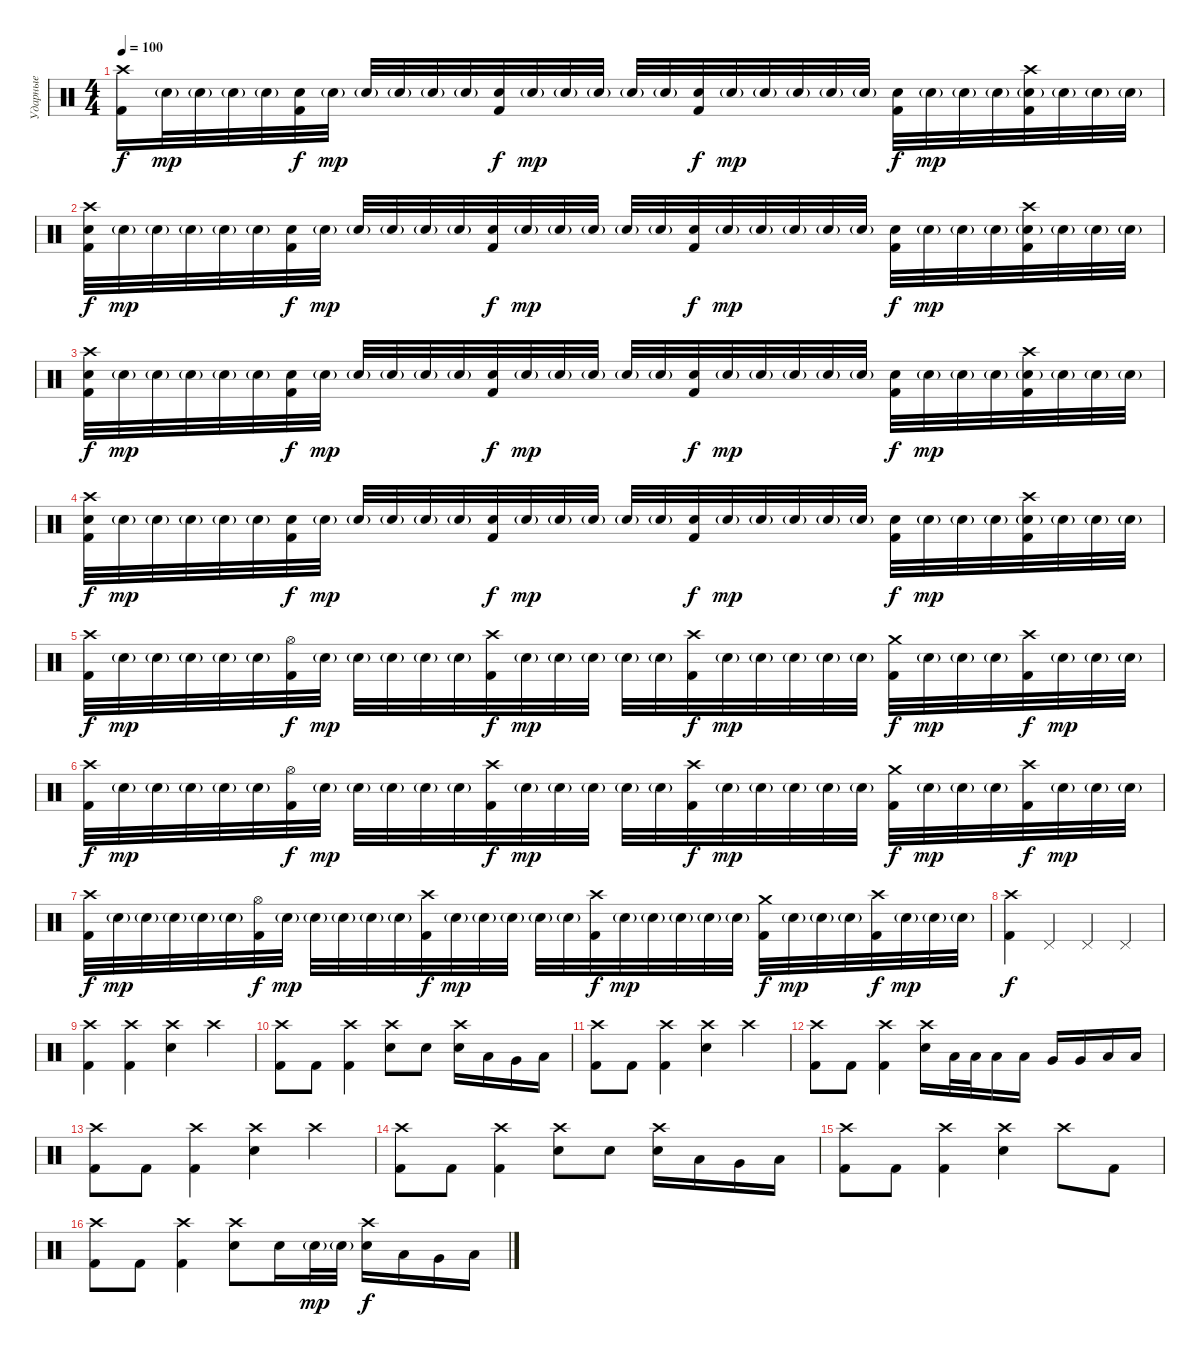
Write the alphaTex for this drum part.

\track ("Ударные" "Ударные") {instrument percussion}
\staff {score}
\articulation defaults
\ts (4 4)
\tempo 100
\clef neutral
\ks c
("Crash high (hit)" "Kick (hit) 2").16{dy f} "Electric Snare (hit)"{g}.32{dy mp} "Electric Snare (hit)"{g}.32 "Electric Snare (hit)"{g}.32 "Electric Snare (hit)"{g}.32 ("Electric Snare (hit)" "Kick (hit) 2").32{dy f} "Electric Snare (hit)"{g}.32{dy mp} "Electric Snare (hit)"{g}.32 "Electric Snare (hit)"{g}.32 "Electric Snare (hit)"{g}.32 "Electric Snare (hit)"{g}.32 ("Electric Snare (hit)" "Kick (hit) 2").32{dy f} "Electric Snare (hit)"{g}.32{dy mp} "Electric Snare (hit)"{g}.32 "Electric Snare (hit)"{g}.32 "Electric Snare (hit)"{g}.32 "Electric Snare (hit)"{g}.32 ("Electric Snare (hit)" "Kick (hit) 2").32{dy f} "Electric Snare (hit)"{g}.32{dy mp} "Electric Snare (hit)"{g}.32 "Electric Snare (hit)"{g}.32 "Electric Snare (hit)"{g}.32 "Electric Snare (hit)"{g}.32 ("Electric Snare (hit)" "Kick (hit) 2").32{dy f} "Electric Snare (hit)"{g}.32{dy mp} "Electric Snare (hit)"{g}.32 "Electric Snare (hit)"{g}.32 ("Crash high (hit)" "Electric Snare (hit)"{g} "Kick (hit) 2").32 "Electric Snare (hit)"{g}.32 "Electric Snare (hit)"{g}.32 "Electric Snare (hit)"{g}.32 |
("Crash high (hit)" "Electric Snare (hit)" "Kick (hit) 2").32{dy f} "Electric Snare (hit)"{g}.32{dy mp} "Electric Snare (hit)"{g}.32 "Electric Snare (hit)"{g}.32 "Electric Snare (hit)"{g}.32 "Electric Snare (hit)"{g}.32 ("Electric Snare (hit)" "Kick (hit) 2").32{dy f} "Electric Snare (hit)"{g}.32{dy mp} "Electric Snare (hit)"{g}.32 "Electric Snare (hit)"{g}.32 "Electric Snare (hit)"{g}.32 "Electric Snare (hit)"{g}.32 ("Electric Snare (hit)" "Kick (hit) 2").32{dy f} "Electric Snare (hit)"{g}.32{dy mp} "Electric Snare (hit)"{g}.32 "Electric Snare (hit)"{g}.32 "Electric Snare (hit)"{g}.32 "Electric Snare (hit)"{g}.32 ("Electric Snare (hit)" "Kick (hit) 2").32{dy f} "Electric Snare (hit)"{g}.32{dy mp} "Electric Snare (hit)"{g}.32 "Electric Snare (hit)"{g}.32 "Electric Snare (hit)"{g}.32 "Electric Snare (hit)"{g}.32 ("Electric Snare (hit)" "Kick (hit) 2").32{dy f} "Electric Snare (hit)"{g}.32{dy mp} "Electric Snare (hit)"{g}.32 "Electric Snare (hit)"{g}.32 ("Crash high (hit)" "Electric Snare (hit)"{g} "Kick (hit) 2").32 "Electric Snare (hit)"{g}.32 "Electric Snare (hit)"{g}.32 "Electric Snare (hit)"{g}.32 |
("Crash high (hit)" "Electric Snare (hit)" "Kick (hit) 2").32{dy f} "Electric Snare (hit)"{g}.32{dy mp} "Electric Snare (hit)"{g}.32 "Electric Snare (hit)"{g}.32 "Electric Snare (hit)"{g}.32 "Electric Snare (hit)"{g}.32 ("Electric Snare (hit)" "Kick (hit) 2").32{dy f} "Electric Snare (hit)"{g}.32{dy mp} "Electric Snare (hit)"{g}.32 "Electric Snare (hit)"{g}.32 "Electric Snare (hit)"{g}.32 "Electric Snare (hit)"{g}.32 ("Electric Snare (hit)" "Kick (hit) 2").32{dy f} "Electric Snare (hit)"{g}.32{dy mp} "Electric Snare (hit)"{g}.32 "Electric Snare (hit)"{g}.32 "Electric Snare (hit)"{g}.32 "Electric Snare (hit)"{g}.32 ("Electric Snare (hit)" "Kick (hit) 2").32{dy f} "Electric Snare (hit)"{g}.32{dy mp} "Electric Snare (hit)"{g}.32 "Electric Snare (hit)"{g}.32 "Electric Snare (hit)"{g}.32 "Electric Snare (hit)"{g}.32 ("Electric Snare (hit)" "Kick (hit) 2").32{dy f} "Electric Snare (hit)"{g}.32{dy mp} "Electric Snare (hit)"{g}.32 "Electric Snare (hit)"{g}.32 ("Crash high (hit)" "Electric Snare (hit)"{g} "Kick (hit) 2").32 "Electric Snare (hit)"{g}.32 "Electric Snare (hit)"{g}.32 "Electric Snare (hit)"{g}.32 |
("Crash high (hit)" "Electric Snare (hit)" "Kick (hit) 2").32{dy f} "Electric Snare (hit)"{g}.32{dy mp} "Electric Snare (hit)"{g}.32 "Electric Snare (hit)"{g}.32 "Electric Snare (hit)"{g}.32 "Electric Snare (hit)"{g}.32 ("Electric Snare (hit)" "Kick (hit) 2").32{dy f} "Electric Snare (hit)"{g}.32{dy mp} "Electric Snare (hit)"{g}.32 "Electric Snare (hit)"{g}.32 "Electric Snare (hit)"{g}.32 "Electric Snare (hit)"{g}.32 ("Electric Snare (hit)" "Kick (hit) 2").32{dy f} "Electric Snare (hit)"{g}.32{dy mp} "Electric Snare (hit)"{g}.32 "Electric Snare (hit)"{g}.32 "Electric Snare (hit)"{g}.32 "Electric Snare (hit)"{g}.32 ("Electric Snare (hit)" "Kick (hit) 2").32{dy f} "Electric Snare (hit)"{g}.32{dy mp} "Electric Snare (hit)"{g}.32 "Electric Snare (hit)"{g}.32 "Electric Snare (hit)"{g}.32 "Electric Snare (hit)"{g}.32 ("Electric Snare (hit)" "Kick (hit) 2").32{dy f} "Electric Snare (hit)"{g}.32{dy mp} "Electric Snare (hit)"{g}.32 "Electric Snare (hit)"{g}.32 ("Crash high (hit)" "Electric Snare (hit)"{g} "Kick (hit) 2").32 "Electric Snare (hit)"{g}.32 "Electric Snare (hit)"{g}.32 "Electric Snare (hit)"{g}.32 |
("Crash high (hit)" "Kick (hit) 2").32{dy f} "Electric Snare (hit)"{g}.32{dy mp} "Electric Snare (hit)"{g}.32 "Electric Snare (hit)"{g}.32 "Electric Snare (hit)"{g}.32 "Electric Snare (hit)"{g}.32 ("Hi-Hat (open)" "Kick (hit) 2").32{dy f} "Electric Snare (hit)"{g}.32{dy mp} "Electric Snare (hit)"{g}.32 "Electric Snare (hit)"{g}.32 "Electric Snare (hit)"{g}.32 "Electric Snare (hit)"{g}.32 ("Crash high (hit)" "Kick (hit) 2").32{dy f} "Electric Snare (hit)"{g}.32{dy mp} "Electric Snare (hit)"{g}.32 "Electric Snare (hit)"{g}.32 "Electric Snare (hit)"{g}.32 "Electric Snare (hit)"{g}.32 ("Crash high (hit)" "Kick (hit) 2").32{dy f} "Electric Snare (hit)"{g}.32{dy mp} "Electric Snare (hit)"{g}.32 "Electric Snare (hit)"{g}.32 "Electric Snare (hit)"{g}.32 "Electric Snare (hit)"{g}.32 ("Crash medium (hit)" "Kick (hit) 2").32{dy f} "Electric Snare (hit)"{g}.32{dy mp} "Electric Snare (hit)"{g}.32 "Electric Snare (hit)"{g}.32 ("Crash high (hit)" "Kick (hit) 2").32{dy f} "Electric Snare (hit)"{g}.32{dy mp} "Electric Snare (hit)"{g}.32 "Electric Snare (hit)"{g}.32 |
("Crash high (hit)" "Kick (hit) 2").32{dy f} "Electric Snare (hit)"{g}.32{dy mp} "Electric Snare (hit)"{g}.32 "Electric Snare (hit)"{g}.32 "Electric Snare (hit)"{g}.32 "Electric Snare (hit)"{g}.32 ("Hi-Hat (open)" "Kick (hit) 2").32{dy f} "Electric Snare (hit)"{g}.32{dy mp} "Electric Snare (hit)"{g}.32 "Electric Snare (hit)"{g}.32 "Electric Snare (hit)"{g}.32 "Electric Snare (hit)"{g}.32 ("Crash high (hit)" "Kick (hit) 2").32{dy f} "Electric Snare (hit)"{g}.32{dy mp} "Electric Snare (hit)"{g}.32 "Electric Snare (hit)"{g}.32 "Electric Snare (hit)"{g}.32 "Electric Snare (hit)"{g}.32 ("Crash high (hit)" "Kick (hit) 2").32{dy f} "Electric Snare (hit)"{g}.32{dy mp} "Electric Snare (hit)"{g}.32 "Electric Snare (hit)"{g}.32 "Electric Snare (hit)"{g}.32 "Electric Snare (hit)"{g}.32 ("Crash medium (hit)" "Kick (hit) 2").32{dy f} "Electric Snare (hit)"{g}.32{dy mp} "Electric Snare (hit)"{g}.32 "Electric Snare (hit)"{g}.32 ("Crash high (hit)" "Kick (hit) 2").32{dy f} "Electric Snare (hit)"{g}.32{dy mp} "Electric Snare (hit)"{g}.32 "Electric Snare (hit)"{g}.32 |
("Crash high (hit)" "Kick (hit) 2").32{dy f} "Electric Snare (hit)"{g}.32{dy mp} "Electric Snare (hit)"{g}.32 "Electric Snare (hit)"{g}.32 "Electric Snare (hit)"{g}.32 "Electric Snare (hit)"{g}.32 ("Hi-Hat (open)" "Kick (hit) 2").32{dy f} "Electric Snare (hit)"{g}.32{dy mp} "Electric Snare (hit)"{g}.32 "Electric Snare (hit)"{g}.32 "Electric Snare (hit)"{g}.32 "Electric Snare (hit)"{g}.32 ("Crash high (hit)" "Kick (hit) 2").32{dy f} "Electric Snare (hit)"{g}.32{dy mp} "Electric Snare (hit)"{g}.32 "Electric Snare (hit)"{g}.32 "Electric Snare (hit)"{g}.32 "Electric Snare (hit)"{g}.32 ("Crash high (hit)" "Kick (hit) 2").32{dy f} "Electric Snare (hit)"{g}.32{dy mp} "Electric Snare (hit)"{g}.32 "Electric Snare (hit)"{g}.32 "Electric Snare (hit)"{g}.32 "Electric Snare (hit)"{g}.32 ("Crash medium (hit)" "Kick (hit) 2").32{dy f} "Electric Snare (hit)"{g}.32{dy mp} "Electric Snare (hit)"{g}.32 "Electric Snare (hit)"{g}.32 ("Crash high (hit)" "Kick (hit) 2").32{dy f} "Electric Snare (hit)"{g}.32{dy mp} "Electric Snare (hit)"{g}.32 "Electric Snare (hit)"{g}.32 |
("Crash high (hit)" "Kick (hit) 2").4{dy f} "Pedal Hi-Hat (hit)".4 "Pedal Hi-Hat (hit)".4 "Pedal Hi-Hat (hit)".4 |
("Crash high (hit)" "Kick (hit) 2").4 ("Crash high (hit)" "Kick (hit) 2").4 ("Crash high (hit)" "Electric Snare (hit)").4 "Crash high (hit)".4 |
("Crash high (hit)" "Kick (hit) 2").8 "Kick (hit) 2".8 ("Crash high (hit)" "Kick (hit) 2").4 ("Crash high (hit)" "Electric Snare (hit)").8 "Electric Snare (hit)".8 ("Crash high (hit)" "Electric Snare (hit)").16 "Low Tom (hit)".16 "Very Low Tom (hit)".16 "Low Floor Tom (hit)".16 |
("Crash high (hit)" "Kick (hit) 2").8 "Kick (hit) 2".8 ("Crash high (hit)" "Kick (hit) 2").4 ("Crash high (hit)" "Electric Snare (hit)").4 "Crash high (hit)".4 |
("Crash high (hit)" "Kick (hit) 2").8 "Kick (hit) 2".8 ("Crash high (hit)" "Kick (hit) 2").4 ("Crash high (hit)" "Electric Snare (hit)").16 "Low Tom (hit)".32 "Low Tom (hit)".32 "Low Tom (hit)".16 "Low Tom (hit)".16 "Very Low Tom (hit)".16 "Very Low Tom (hit)".16 "Low Floor Tom (hit)".16 "Low Floor Tom (hit)".16 |
("Crash high (hit)" "Kick (hit) 2").8 "Kick (hit) 2".8 ("Crash high (hit)" "Kick (hit) 2").4 ("Crash high (hit)" "Electric Snare (hit)").4 "Crash high (hit)".4 |
("Crash high (hit)" "Kick (hit) 2").8 "Kick (hit) 2".8 ("Crash high (hit)" "Kick (hit) 2").4 ("Crash high (hit)" "Electric Snare (hit)").8 "Electric Snare (hit)".8 ("Crash high (hit)" "Electric Snare (hit)").16 "Low Tom (hit)".16 "Very Low Tom (hit)".16 "Low Floor Tom (hit)".16 |
("Crash high (hit)" "Kick (hit) 2").8 "Kick (hit) 2".8 ("Crash high (hit)" "Kick (hit) 2").4 ("Crash high (hit)" "Electric Snare (hit)").4 "Crash high (hit)".8 "Kick (hit) 2".8 |
("Crash high (hit)" "Kick (hit) 2").8 "Kick (hit) 2".8 ("Crash high (hit)" "Kick (hit) 2").4 ("Crash high (hit)" "Electric Snare (hit)").8 "Electric Snare (hit)".16 "Electric Snare (hit)"{g}.32{dy mp} "Electric Snare (hit)"{g}.32 ("Crash high (hit)" "Electric Snare (hit)").16{dy f} "Low Tom (hit)".16 "Very Low Tom (hit)".16 "Low Floor Tom (hit)".16
